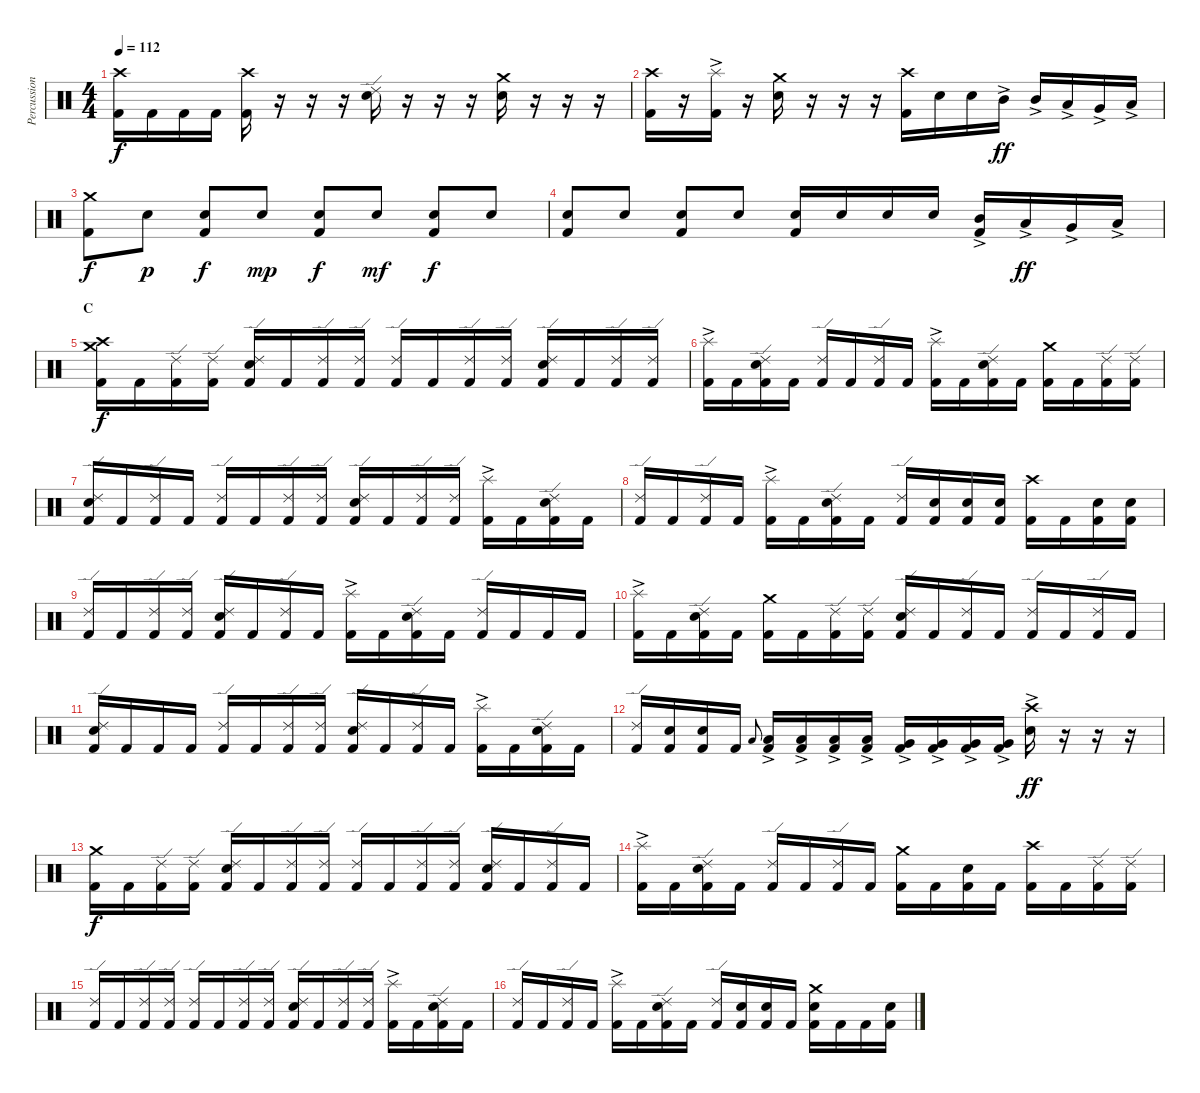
\track ("Percussion" "Percussion") {instrument percussion}
\staff {score}
\articulation defaults
\ts (4 4)
\tempo 112
\clef neutral
\ks c
("Crash high (hit)" "Kick (hit) 2").16{dy f} "Kick (hit) 2".16 "Kick (hit) 2".16 "Kick (hit) 2".16 ("Crash high (hit)" "Kick (hit) 2").16 r.16 r.16 r.16 ("Ride (edge) 2" "Electric Snare (hit)").16 r.16 r.16 r.16 ("Crash medium (hit)" "Electric Snare (hit)").16 r.16 r.16 r.16 |
("Crash high (hit)" "Kick (hit) 2").16 r.16 ("Splash (hit)"{ac} "Kick (hit) 2").16 r.16 ("Crash medium (hit)" "Electric Snare (hit)").16 r.16 r.16 r.16 ("Crash high (hit)" "Kick (hit) 2").16 "Electric Snare (hit)".16 "Electric Snare (hit)".16 "Mid Tom (hit)"{ac}.16{dy ff} "Mid Tom (hit)"{ac}.16 "Low Tom (hit)"{ac}.16 "Very Low Tom (hit)"{ac}.16 "Low Floor Tom (hit)"{ac}.16 |
("Crash medium (hit)" "Kick (hit) 2").8{dy f} "Electric Snare (hit)".8{dy p} ("Electric Snare (hit)" "Kick (hit) 2").8{dy f} "Electric Snare (hit)".8{dy mp} ("Electric Snare (hit)" "Kick (hit) 2").8{dy f} "Electric Snare (hit)".8{dy mf} ("Electric Snare (hit)" "Kick (hit) 2").8{dy f} "Electric Snare (hit)".8 |
("Electric Snare (hit)" "Kick (hit) 2").8 "Electric Snare (hit)".8 ("Electric Snare (hit)" "Kick (hit) 2").8 "Electric Snare (hit)".8 ("Electric Snare (hit)" "Kick (hit) 2").16 "Electric Snare (hit)".16 "Electric Snare (hit)".16 "Electric Snare (hit)".16 ("Mid Tom (hit)"{ac} "Kick (hit) 2").16 "Low Tom (hit)"{ac}.16{dy ff} "Very Low Tom (hit)"{ac}.16 "Low Floor Tom (hit)"{ac}.16 |
\section ("" "C")
("Crash medium (hit)" "Crash high (hit)" "Kick (hit) 2").16{dy f} "Kick (hit) 2".16 ("Ride (edge) 2" "Kick (hit) 2").16 ("Ride (edge) 2" "Kick (hit) 2").16 ("Ride (edge) 2" "Electric Snare (hit)" "Kick (hit) 2").16 "Kick (hit) 2".16 ("Ride (edge) 2" "Kick (hit) 2").16 ("Ride (edge) 2" "Kick (hit) 2").16 ("Ride (edge) 2" "Kick (hit) 2").16 "Kick (hit) 2".16 ("Ride (edge) 2" "Kick (hit) 2").16 ("Ride (edge) 2" "Kick (hit) 2").16 ("Ride (edge) 2" "Electric Snare (hit)" "Kick (hit) 2").16 "Kick (hit) 2".16 ("Ride (edge) 2" "Kick (hit) 2").16 ("Ride (edge) 2" "Kick (hit) 2").16 |
("Splash (hit)"{ac} "Kick (hit) 2").16 "Kick (hit) 2".16 ("Ride (edge) 2" "Electric Snare (hit)" "Kick (hit) 2").16 "Kick (hit) 2".16 ("Ride (edge) 2" "Kick (hit) 2").16 "Kick (hit) 2".16 ("Ride (edge) 2" "Kick (hit) 2").16 "Kick (hit) 2".16 ("Splash (hit)"{ac} "Kick (hit) 2").16 "Kick (hit) 2".16 ("Ride (edge) 2" "Electric Snare (hit)" "Kick (hit) 2").16 "Kick (hit) 2".16 ("Crash medium (hit)" "Kick (hit) 2").16 "Kick (hit) 2".16 ("Ride (edge) 2" "Kick (hit) 2").16 ("Ride (edge) 2" "Kick (hit) 2").16 |
("Ride (edge) 2" "Electric Snare (hit)" "Kick (hit) 2").16 "Kick (hit) 2".16 ("Ride (edge) 2" "Kick (hit) 2").16 "Kick (hit) 2".16 ("Ride (edge) 2" "Kick (hit) 2").16 "Kick (hit) 2".16 ("Ride (edge) 2" "Kick (hit) 2").16 ("Ride (edge) 2" "Kick (hit) 2").16 ("Ride (edge) 2" "Electric Snare (hit)" "Kick (hit) 2").16 "Kick (hit) 2".16 ("Ride (edge) 2" "Kick (hit) 2").16 ("Ride (edge) 2" "Kick (hit) 2").16 ("Splash (hit)"{ac} "Kick (hit) 2").16 "Kick (hit) 2".16 ("Ride (edge) 2" "Electric Snare (hit)" "Kick (hit) 2").16 "Kick (hit) 2".16 |
("Ride (edge) 2" "Kick (hit) 2").16 "Kick (hit) 2".16 ("Ride (edge) 2" "Kick (hit) 2").16 "Kick (hit) 2".16 ("Splash (hit)"{ac} "Kick (hit) 2").16 "Kick (hit) 2".16 ("Ride (edge) 2" "Electric Snare (hit)" "Kick (hit) 2").16 "Kick (hit) 2".16 ("Ride (edge) 2" "Kick (hit) 2").16 ("Electric Snare (hit)" "Kick (hit) 2").16 ("Electric Snare (hit)" "Kick (hit) 2").16 ("Electric Snare (hit)" "Kick (hit) 2").16 ("Crash high (hit)" "Kick (hit) 2").16 "Kick (hit) 2".16 ("Electric Snare (hit)" "Kick (hit) 2").16 ("Electric Snare (hit)" "Kick (hit) 2").16 |
("Ride (edge) 2" "Kick (hit) 2").16 "Kick (hit) 2".16 ("Ride (edge) 2" "Kick (hit) 2").16 ("Ride (edge) 2" "Kick (hit) 2").16 ("Ride (edge) 2" "Electric Snare (hit)" "Kick (hit) 2").16 "Kick (hit) 2".16 ("Ride (edge) 2" "Kick (hit) 2").16 "Kick (hit) 2".16 ("Splash (hit)"{ac} "Kick (hit) 2").16 "Kick (hit) 2".16 ("Ride (edge) 2" "Electric Snare (hit)" "Kick (hit) 2").16 "Kick (hit) 2".16 ("Ride (edge) 2" "Kick (hit) 2").16 "Kick (hit) 2".16 "Kick (hit) 2".16 "Kick (hit) 2".16 |
("Splash (hit)"{ac} "Kick (hit) 2").16 "Kick (hit) 2".16 ("Ride (edge) 2" "Electric Snare (hit)" "Kick (hit) 2").16 "Kick (hit) 2".16 ("Crash medium (hit)" "Kick (hit) 2").16 "Kick (hit) 2".16 ("Ride (edge) 2" "Kick (hit) 2").16 ("Ride (edge) 2" "Kick (hit) 2").16 ("Ride (edge) 2" "Electric Snare (hit)" "Kick (hit) 2").16 "Kick (hit) 2".16 ("Ride (edge) 2" "Kick (hit) 2").16 "Kick (hit) 2".16 ("Ride (edge) 2" "Kick (hit) 2").16 "Kick (hit) 2".16 ("Ride (edge) 2" "Kick (hit) 2").16 "Kick (hit) 2".16 |
("Ride (edge) 2" "Electric Snare (hit)" "Kick (hit) 2").16 "Kick (hit) 2".16 "Kick (hit) 2".16 "Kick (hit) 2".16 ("Ride (edge) 2" "Kick (hit) 2").16 "Kick (hit) 2".16 ("Ride (edge) 2" "Kick (hit) 2").16 ("Ride (edge) 2" "Kick (hit) 2").16 ("Ride (edge) 2" "Electric Snare (hit)" "Kick (hit) 2").16 "Kick (hit) 2".16 ("Ride (edge) 2" "Kick (hit) 2").16 "Kick (hit) 2".16 ("Splash (hit)"{ac} "Kick (hit) 2").16 "Kick (hit) 2".16 ("Ride (edge) 2" "Electric Snare (hit)" "Kick (hit) 2").16 "Kick (hit) 2".16 |
("Ride (edge) 2" "Kick (hit) 2").16 ("Electric Snare (hit)" "Kick (hit) 2").16 ("Electric Snare (hit)" "Kick (hit) 2").16 "Kick (hit) 2".16 "Low Tom (hit)".8{gr onbeat} ("Low Tom (hit)"{ac} "Kick (hit) 2").16 ("Low Tom (hit)"{ac} "Kick (hit) 2").16 ("Low Tom (hit)"{ac} "Kick (hit) 2").16 ("Low Tom (hit)"{ac} "Kick (hit) 2").16 ("Very Low Tom (hit)"{ac} "Kick (hit) 2").16 ("Very Low Tom (hit)"{ac} "Kick (hit) 2").16 ("Very Low Tom (hit)"{ac} "Kick (hit) 2").16 ("Very Low Tom (hit)"{ac} "Kick (hit) 2").16 ("Crash high (hit)" "Electric Snare (hit)"{ac}).16{dy ff} r.16 r.16 r.16 |
("Crash medium (hit)" "Kick (hit) 2").16{dy f} "Kick (hit) 2".16 ("Ride (edge) 2" "Kick (hit) 2").16 ("Ride (edge) 2" "Kick (hit) 2").16 ("Ride (edge) 2" "Electric Snare (hit)" "Kick (hit) 2").16 "Kick (hit) 2".16 ("Ride (edge) 2" "Kick (hit) 2").16 ("Ride (edge) 2" "Kick (hit) 2").16 ("Ride (edge) 2" "Kick (hit) 2").16 "Kick (hit) 2".16 ("Ride (edge) 2" "Kick (hit) 2").16 ("Ride (edge) 2" "Kick (hit) 2").16 ("Ride (edge) 2" "Electric Snare (hit)" "Kick (hit) 2").16 "Kick (hit) 2".16 ("Ride (edge) 2" "Kick (hit) 2").16 "Kick (hit) 2".16 |
("Splash (hit)"{ac} "Kick (hit) 2").16 "Kick (hit) 2".16 ("Ride (edge) 2" "Electric Snare (hit)" "Kick (hit) 2").16 "Kick (hit) 2".16 ("Ride (edge) 2" "Kick (hit) 2").16 "Kick (hit) 2".16 ("Ride (edge) 2" "Kick (hit) 2").16 "Kick (hit) 2".16 ("Crash medium (hit)" "Kick (hit) 2").16 "Kick (hit) 2".16 ("Electric Snare (hit)" "Kick (hit) 2").16 "Kick (hit) 2".16 ("Crash high (hit)" "Kick (hit) 2").16 "Kick (hit) 2".16 ("Ride (edge) 2" "Kick (hit) 2").16 ("Ride (edge) 2" "Kick (hit) 2").16 |
("Ride (edge) 2" "Kick (hit) 2").16 "Kick (hit) 2".16 ("Ride (edge) 2" "Kick (hit) 2").16 ("Ride (edge) 2" "Kick (hit) 2").16 ("Ride (edge) 2" "Kick (hit) 2").16 "Kick (hit) 2".16 ("Ride (edge) 2" "Kick (hit) 2").16 ("Ride (edge) 2" "Kick (hit) 2").16 ("Ride (edge) 2" "Electric Snare (hit)" "Kick (hit) 2").16 "Kick (hit) 2".16 ("Ride (edge) 2" "Kick (hit) 2").16 ("Ride (edge) 2" "Kick (hit) 2").16 ("Splash (hit)"{ac} "Kick (hit) 2").16 "Kick (hit) 2".16 ("Ride (edge) 2" "Electric Snare (hit)" "Kick (hit) 2").16 "Kick (hit) 2".16 |
("Ride (edge) 2" "Kick (hit) 2").16 "Kick (hit) 2".16 ("Ride (edge) 2" "Kick (hit) 2").16 "Kick (hit) 2".16 ("Splash (hit)"{ac} "Kick (hit) 2").16 "Kick (hit) 2".16 ("Ride (edge) 2" "Electric Snare (hit)" "Kick (hit) 2").16 "Kick (hit) 2".16 ("Ride (edge) 2" "Kick (hit) 2").16 ("Electric Snare (hit)" "Kick (hit) 2").16 ("Electric Snare (hit)" "Kick (hit) 2").16 "Kick (hit) 2".16 ("Crash medium (hit)" "Electric Snare (hit)" "Kick (hit) 2").16 "Kick (hit) 2".16 "Kick (hit) 2".16 ("Electric Snare (hit)" "Kick (hit) 2").16
